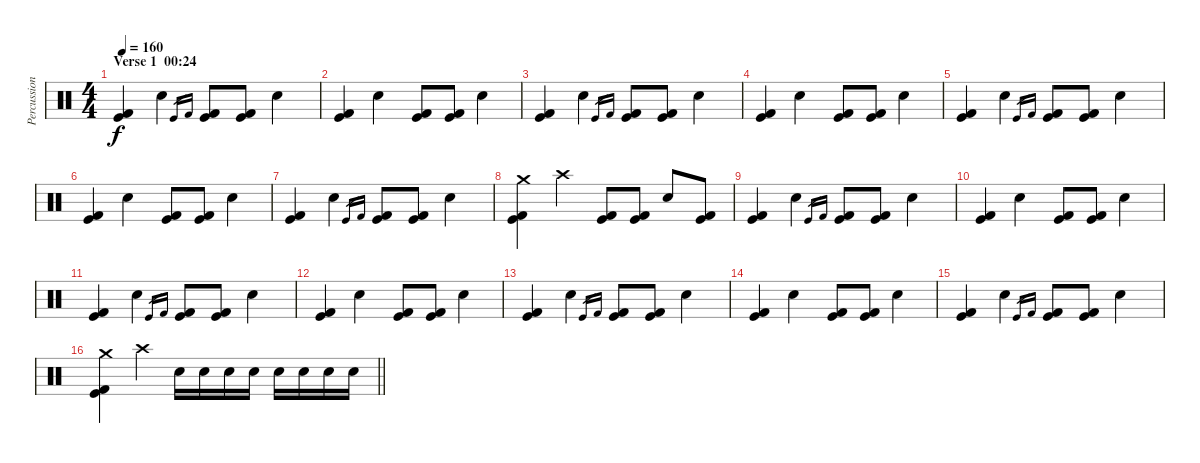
\track ("Percussion" "Percussion") {instrument percussion}
\staff {score}
\articulation defaults
\ts (4 4)
\section ("" "Verse 1  00:24")
\tempo 160
\clef neutral
\ks c
("Kick (hit)" "Kick (hit) 2").4{dy f} "Electric Snare (hit)".4 "Kick (hit)".16{gr} "Kick (hit) 2".16{gr} ("Kick (hit)" "Kick (hit) 2").8 ("Kick (hit)" "Kick (hit) 2").8 "Electric Snare (hit)".4 |
("Kick (hit)" "Kick (hit) 2").4 "Electric Snare (hit)".4 ("Kick (hit)" "Kick (hit) 2").8 ("Kick (hit)" "Kick (hit) 2").8 "Electric Snare (hit)".4 |
("Kick (hit)" "Kick (hit) 2").4 "Electric Snare (hit)".4 "Kick (hit)".16{gr} "Kick (hit) 2".16{gr} ("Kick (hit)" "Kick (hit) 2").8 ("Kick (hit)" "Kick (hit) 2").8 "Electric Snare (hit)".4 |
("Kick (hit)" "Kick (hit) 2").4 "Electric Snare (hit)".4 ("Kick (hit)" "Kick (hit) 2").8 ("Kick (hit)" "Kick (hit) 2").8 "Electric Snare (hit)".4 |
("Kick (hit)" "Kick (hit) 2").4 "Electric Snare (hit)".4 "Kick (hit)".16{gr} "Kick (hit) 2".16{gr} ("Kick (hit)" "Kick (hit) 2").8 ("Kick (hit)" "Kick (hit) 2").8 "Electric Snare (hit)".4 |
("Kick (hit)" "Kick (hit) 2").4 "Electric Snare (hit)".4 ("Kick (hit)" "Kick (hit) 2").8 ("Kick (hit)" "Kick (hit) 2").8 "Electric Snare (hit)".4 |
("Kick (hit)" "Kick (hit) 2").4 "Electric Snare (hit)".4 "Kick (hit)".16{gr} "Kick (hit) 2".16{gr} ("Kick (hit)" "Kick (hit) 2").8 ("Kick (hit)" "Kick (hit) 2").8 "Electric Snare (hit)".4 |
("Crash medium (hit)" "Kick (hit)" "Kick (hit) 2").4 "Crash high (hit)".4 ("Kick (hit)" "Kick (hit) 2").8 ("Kick (hit)" "Kick (hit) 2").8 "Electric Snare (hit)".8 ("Kick (hit)" "Kick (hit) 2").8 |
("Kick (hit)" "Kick (hit) 2").4 "Electric Snare (hit)".4 "Kick (hit)".16{gr} "Kick (hit) 2".16{gr} ("Kick (hit)" "Kick (hit) 2").8 ("Kick (hit)" "Kick (hit) 2").8 "Electric Snare (hit)".4 |
("Kick (hit)" "Kick (hit) 2").4 "Electric Snare (hit)".4 ("Kick (hit)" "Kick (hit) 2").8 ("Kick (hit)" "Kick (hit) 2").8 "Electric Snare (hit)".4 |
("Kick (hit)" "Kick (hit) 2").4 "Electric Snare (hit)".4 "Kick (hit)".16{gr} "Kick (hit) 2".16{gr} ("Kick (hit)" "Kick (hit) 2").8 ("Kick (hit)" "Kick (hit) 2").8 "Electric Snare (hit)".4 |
("Kick (hit)" "Kick (hit) 2").4 "Electric Snare (hit)".4 ("Kick (hit)" "Kick (hit) 2").8 ("Kick (hit)" "Kick (hit) 2").8 "Electric Snare (hit)".4 |
("Kick (hit)" "Kick (hit) 2").4 "Electric Snare (hit)".4 "Kick (hit)".16{gr} "Kick (hit) 2".16{gr} ("Kick (hit)" "Kick (hit) 2").8 ("Kick (hit)" "Kick (hit) 2").8 "Electric Snare (hit)".4 |
("Kick (hit)" "Kick (hit) 2").4 "Electric Snare (hit)".4 ("Kick (hit)" "Kick (hit) 2").8 ("Kick (hit)" "Kick (hit) 2").8 "Electric Snare (hit)".4 |
("Kick (hit)" "Kick (hit) 2").4 "Electric Snare (hit)".4 "Kick (hit)".16{gr} "Kick (hit) 2".16{gr} ("Kick (hit)" "Kick (hit) 2").8 ("Kick (hit)" "Kick (hit) 2").8 "Electric Snare (hit)".4 |
\barLineRight lightlight
("Crash medium (hit)" "Kick (hit)" "Kick (hit) 2").4 "Crash high (hit)".4 "Electric Snare (hit)".16 "Electric Snare (hit)".16 "Electric Snare (hit)".16 "Electric Snare (hit)".16 "Electric Snare (hit)".16 "Electric Snare (hit)".16 "Electric Snare (hit)".16 "Electric Snare (hit)".16
